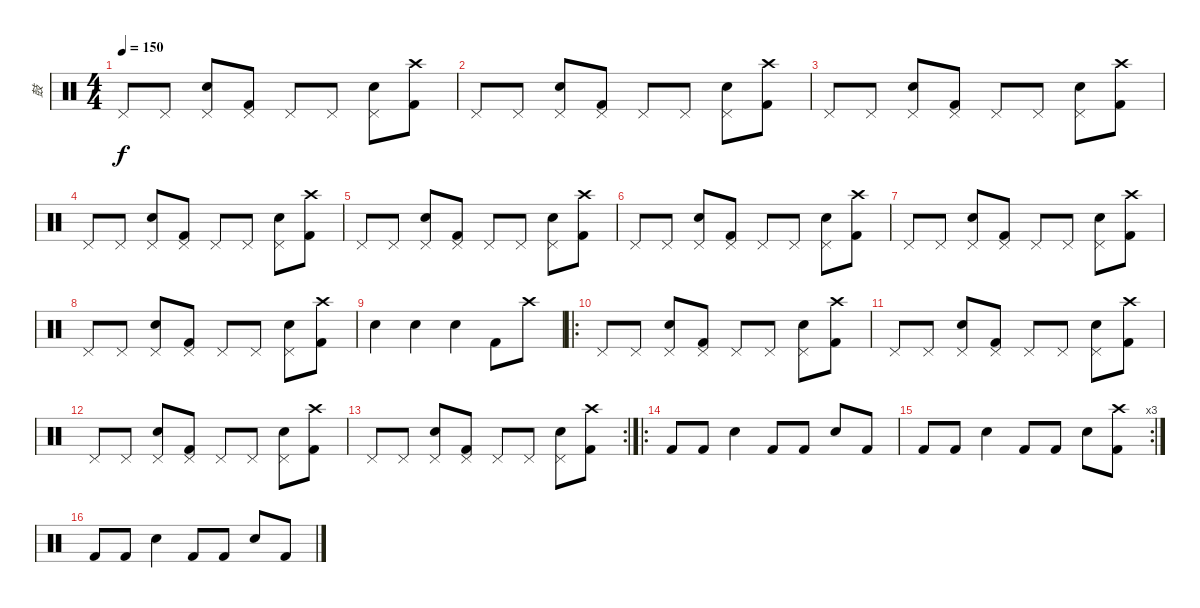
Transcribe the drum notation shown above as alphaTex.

\track ("鼓" "鼓") {instrument percussion}
\staff {score}
\articulation defaults
\ts (4 4)
\tempo 150
\clef neutral
\ks c "Pedal Hi-Hat (hit)".8{dy f} "Pedal Hi-Hat (hit)".8
("Pedal Hi-Hat (hit)" "Electric Snare (hit)").8 ("Pedal Hi-Hat (hit)" "Kick (hit) 2").8 "Pedal Hi-Hat (hit)".8 "Pedal Hi-Hat (hit)".8 ("Pedal Hi-Hat (hit)" "Electric Snare (hit)").8 ("Crash high (hit)" "Kick (hit) 2").8 |
"Pedal Hi-Hat (hit)".8 "Pedal Hi-Hat (hit)".8 ("Pedal Hi-Hat (hit)" "Electric Snare (hit)").8 ("Pedal Hi-Hat (hit)" "Kick (hit) 2").8 "Pedal Hi-Hat (hit)".8 "Pedal Hi-Hat (hit)".8 ("Pedal Hi-Hat (hit)" "Electric Snare (hit)").8 ("Crash high (hit)" "Kick (hit) 2").8 |
"Pedal Hi-Hat (hit)".8 "Pedal Hi-Hat (hit)".8 ("Pedal Hi-Hat (hit)" "Electric Snare (hit)").8 ("Pedal Hi-Hat (hit)" "Kick (hit) 2").8 "Pedal Hi-Hat (hit)".8 "Pedal Hi-Hat (hit)".8 ("Pedal Hi-Hat (hit)" "Electric Snare (hit)").8 ("Crash high (hit)" "Kick (hit) 2").8 |
"Pedal Hi-Hat (hit)".8 "Pedal Hi-Hat (hit)".8 ("Pedal Hi-Hat (hit)" "Electric Snare (hit)").8 ("Pedal Hi-Hat (hit)" "Kick (hit) 2").8 "Pedal Hi-Hat (hit)".8 "Pedal Hi-Hat (hit)".8 ("Pedal Hi-Hat (hit)" "Electric Snare (hit)").8 ("Crash high (hit)" "Kick (hit) 2").8 |
"Pedal Hi-Hat (hit)".8 "Pedal Hi-Hat (hit)".8 ("Pedal Hi-Hat (hit)" "Electric Snare (hit)").8 ("Pedal Hi-Hat (hit)" "Kick (hit) 2").8 "Pedal Hi-Hat (hit)".8 "Pedal Hi-Hat (hit)".8 ("Pedal Hi-Hat (hit)" "Electric Snare (hit)").8 ("Crash high (hit)" "Kick (hit) 2").8 |
"Pedal Hi-Hat (hit)".8 "Pedal Hi-Hat (hit)".8 ("Pedal Hi-Hat (hit)" "Electric Snare (hit)").8 ("Pedal Hi-Hat (hit)" "Kick (hit) 2").8 "Pedal Hi-Hat (hit)".8 "Pedal Hi-Hat (hit)".8 ("Pedal Hi-Hat (hit)" "Electric Snare (hit)").8 ("Crash high (hit)" "Kick (hit) 2").8 |
"Pedal Hi-Hat (hit)".8 "Pedal Hi-Hat (hit)".8 ("Pedal Hi-Hat (hit)" "Electric Snare (hit)").8 ("Pedal Hi-Hat (hit)" "Kick (hit) 2").8 "Pedal Hi-Hat (hit)".8 "Pedal Hi-Hat (hit)".8 ("Pedal Hi-Hat (hit)" "Electric Snare (hit)").8 ("Crash high (hit)" "Kick (hit) 2").8 |
"Pedal Hi-Hat (hit)".8 "Pedal Hi-Hat (hit)".8 ("Pedal Hi-Hat (hit)" "Electric Snare (hit)").8 ("Pedal Hi-Hat (hit)" "Kick (hit) 2").8 "Pedal Hi-Hat (hit)".8 "Pedal Hi-Hat (hit)".8 ("Pedal Hi-Hat (hit)" "Electric Snare (hit)").8 ("Crash high (hit)" "Kick (hit) 2").8 |
"Electric Snare (hit)".4 "Electric Snare (hit)".4 "Electric Snare (hit)".4 "Kick (hit) 2".8 "Crash high (hit)".8 |
\ro "Pedal Hi-Hat (hit)".8 "Pedal Hi-Hat (hit)".8
("Pedal Hi-Hat (hit)" "Electric Snare (hit)").8 ("Pedal Hi-Hat (hit)" "Kick (hit) 2").8 "Pedal Hi-Hat (hit)".8 "Pedal Hi-Hat (hit)".8 ("Pedal Hi-Hat (hit)" "Electric Snare (hit)").8 ("Crash high (hit)" "Kick (hit) 2").8 |
"Pedal Hi-Hat (hit)".8 "Pedal Hi-Hat (hit)".8 ("Pedal Hi-Hat (hit)" "Electric Snare (hit)").8 ("Pedal Hi-Hat (hit)" "Kick (hit) 2").8 "Pedal Hi-Hat (hit)".8 "Pedal Hi-Hat (hit)".8 ("Pedal Hi-Hat (hit)" "Electric Snare (hit)").8 ("Crash high (hit)" "Kick (hit) 2").8 |
"Pedal Hi-Hat (hit)".8 "Pedal Hi-Hat (hit)".8 ("Pedal Hi-Hat (hit)" "Electric Snare (hit)").8 ("Pedal Hi-Hat (hit)" "Kick (hit) 2").8 "Pedal Hi-Hat (hit)".8 "Pedal Hi-Hat (hit)".8 ("Pedal Hi-Hat (hit)" "Electric Snare (hit)").8 ("Crash high (hit)" "Kick (hit) 2").8 |
\rc 2 "Pedal Hi-Hat (hit)".8 "Pedal Hi-Hat (hit)".8
("Pedal Hi-Hat (hit)" "Electric Snare (hit)").8 ("Pedal Hi-Hat (hit)" "Kick (hit) 2").8 "Pedal Hi-Hat (hit)".8 "Pedal Hi-Hat (hit)".8 ("Pedal Hi-Hat (hit)" "Electric Snare (hit)").8 ("Crash high (hit)" "Kick (hit) 2").8 |
\ro "Kick (hit) 2".8 "Kick (hit) 2".8 "Electric Snare (hit)".4 "Kick (hit) 2".8 "Kick (hit) 2".8 "Electric Snare (hit)".8 "Kick (hit) 2".8
|
\rc 3 "Kick (hit) 2".8 "Kick (hit) 2".8 "Electric Snare (hit)".4 "Kick (hit) 2".8 "Kick (hit) 2".8 "Electric Snare (hit)".8
("Crash high (hit)" "Kick (hit) 2").8 |
"Kick (hit) 2".8 "Kick (hit) 2".8 "Electric Snare (hit)".4 "Kick (hit) 2".8 "Kick (hit) 2".8 "Electric Snare (hit)".8 "Kick (hit) 2".8
